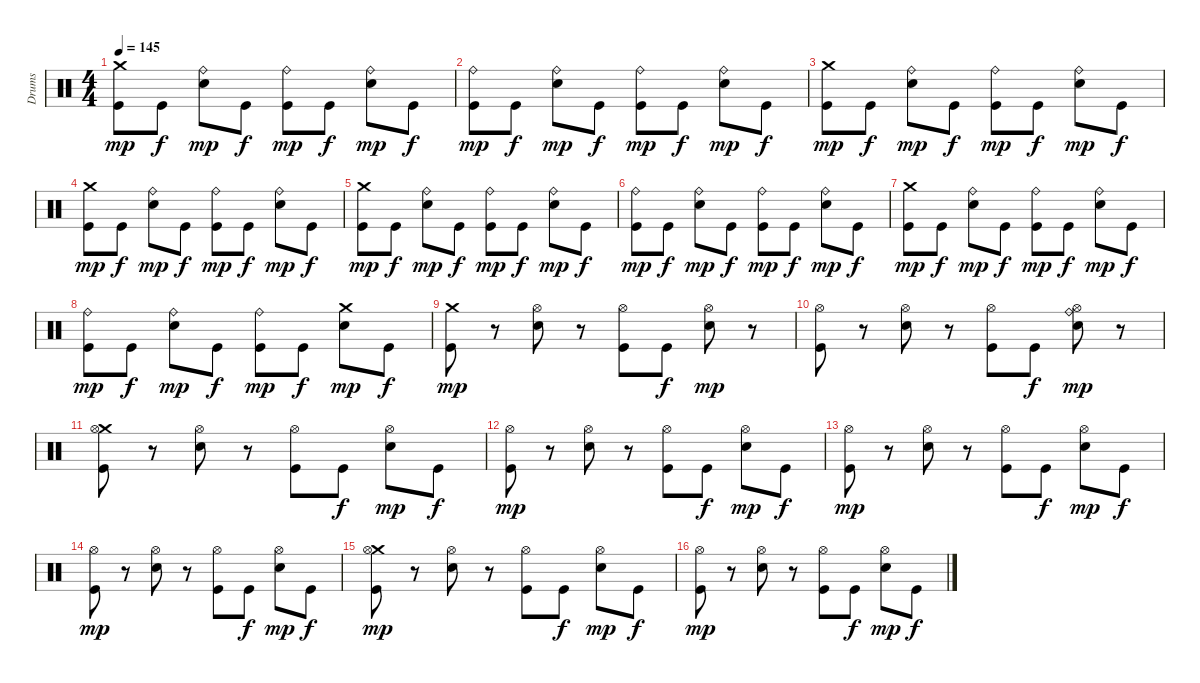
\track ("Drums" "Drums") {instrument percussion}
\staff {score}
\articulation defaults
\ts (4 4)
\tempo 145
\clef neutral
\ks c
("Kick (hit)" "Crash medium (hit)").8{dy mp} "Kick (hit)".8{dy f} ("Snare (hit) 2" "Ride (bell)").8{dy mp} "Kick (hit)".8{dy f} ("Kick (hit)" "Ride (bell)").8{dy mp} "Kick (hit)".8{dy f} ("Snare (hit) 2" "Ride (bell)").8{dy mp} "Kick (hit)".8{dy f} |
("Kick (hit)" "Ride (bell)").8{dy mp} "Kick (hit)".8{dy f} ("Snare (hit) 2" "Ride (bell)").8{dy mp} "Kick (hit)".8{dy f} ("Kick (hit)" "Ride (bell)").8{dy mp} "Kick (hit)".8{dy f} ("Snare (hit) 2" "Ride (bell)").8{dy mp} "Kick (hit)".8{dy f} |
("Kick (hit)" "Crash medium (hit)").8{dy mp} "Kick (hit)".8{dy f} ("Snare (hit) 2" "Ride (bell)").8{dy mp} "Kick (hit)".8{dy f} ("Kick (hit)" "Ride (bell)").8{dy mp} "Kick (hit)".8{dy f} ("Snare (hit) 2" "Ride (bell)").8{dy mp} "Kick (hit)".8{dy f} |
("Kick (hit)" "Crash medium (hit)").8{dy mp} "Kick (hit)".8{dy f} ("Snare (hit) 2" "Ride (bell)").8{dy mp} "Kick (hit)".8{dy f} ("Kick (hit)" "Ride (bell)").8{dy mp} "Kick (hit)".8{dy f} ("Snare (hit) 2" "Ride (bell)").8{dy mp} "Kick (hit)".8{dy f} |
("Kick (hit)" "Crash medium (hit)").8{dy mp} "Kick (hit)".8{dy f} ("Snare (hit) 2" "Ride (bell)").8{dy mp} "Kick (hit)".8{dy f} ("Kick (hit)" "Ride (bell)").8{dy mp} "Kick (hit)".8{dy f} ("Snare (hit) 2" "Ride (bell)").8{dy mp} "Kick (hit)".8{dy f} |
("Kick (hit)" "Ride (bell)").8{dy mp} "Kick (hit)".8{dy f} ("Snare (hit) 2" "Ride (bell)").8{dy mp} "Kick (hit)".8{dy f} ("Kick (hit)" "Ride (bell)").8{dy mp} "Kick (hit)".8{dy f} ("Snare (hit) 2" "Ride (bell)").8{dy mp} "Kick (hit)".8{dy f} |
("Kick (hit)" "Crash medium (hit)").8{dy mp} "Kick (hit)".8{dy f} ("Snare (hit) 2" "Ride (bell)").8{dy mp} "Kick (hit)".8{dy f} ("Kick (hit)" "Ride (bell)").8{dy mp} "Kick (hit)".8{dy f} ("Snare (hit) 2" "Ride (bell)").8{dy mp} "Kick (hit)".8{dy f} |
("Kick (hit)" "Ride (bell)").8{dy mp} "Kick (hit)".8{dy f} ("Snare (hit) 2" "Ride (bell)").8{dy mp} "Kick (hit)".8{dy f} ("Kick (hit)" "Ride (bell)").8{dy mp} "Kick (hit)".8{dy f} ("Snare (hit) 2" "Crash medium (hit)").8{dy mp} "Kick (hit)".8{dy f} |
("Kick (hit)" "Crash medium (hit)").8{dy mp} r.8 ("Snare (hit) 2" "Hi-Hat (open)").8 r.8 ("Kick (hit)" "Hi-Hat (open)").8 "Kick (hit)".8{dy f} ("Snare (hit) 2" "Hi-Hat (open)").8{dy mp} r.8 |
("Kick (hit)" "Hi-Hat (open)").8 r.8 ("Snare (hit) 2" "Hi-Hat (open)").8 r.8 ("Kick (hit)" "Hi-Hat (open)").8 "Kick (hit)".8{dy f} ("Snare (hit) 2" "Hi-Hat (open)" "Ride (bell)").8{dy mp} r.8 |
("Kick (hit)" "Crash medium (hit)" "Hi-Hat (open)").8 r.8 ("Snare (hit) 2" "Hi-Hat (open)").8 r.8 ("Kick (hit)" "Hi-Hat (open)").8 "Kick (hit)".8{dy f} ("Snare (hit) 2" "Hi-Hat (open)").8{dy mp} "Kick (hit)".8{dy f} |
("Kick (hit)" "Hi-Hat (open)").8{dy mp} r.8 ("Snare (hit) 2" "Hi-Hat (open)").8 r.8 ("Kick (hit)" "Hi-Hat (open)").8 "Kick (hit)".8{dy f} ("Snare (hit) 2" "Hi-Hat (open)").8{dy mp} "Kick (hit)".8{dy f} |
("Kick (hit)" "Hi-Hat (open)").8{dy mp} r.8 ("Snare (hit) 2" "Hi-Hat (open)").8 r.8 ("Kick (hit)" "Hi-Hat (open)").8 "Kick (hit)".8{dy f} ("Snare (hit) 2" "Hi-Hat (open)").8{dy mp} "Kick (hit)".8{dy f} |
("Kick (hit)" "Hi-Hat (open)").8{dy mp} r.8 ("Snare (hit) 2" "Hi-Hat (open)").8 r.8 ("Kick (hit)" "Hi-Hat (open)").8 "Kick (hit)".8{dy f} ("Snare (hit) 2" "Hi-Hat (open)").8{dy mp} "Kick (hit)".8{dy f} |
("Kick (hit)" "Crash medium (hit)" "Hi-Hat (open)").8{dy mp} r.8 ("Snare (hit) 2" "Hi-Hat (open)").8 r.8 ("Kick (hit)" "Hi-Hat (open)").8 "Kick (hit)".8{dy f} ("Snare (hit) 2" "Hi-Hat (open)").8{dy mp} "Kick (hit)".8{dy f} |
("Kick (hit)" "Hi-Hat (open)").8{dy mp} r.8 ("Snare (hit) 2" "Hi-Hat (open)").8 r.8 ("Kick (hit)" "Hi-Hat (open)").8 "Kick (hit)".8{dy f} ("Snare (hit) 2" "Hi-Hat (open)").8{dy mp} "Kick (hit)".8{dy f}
